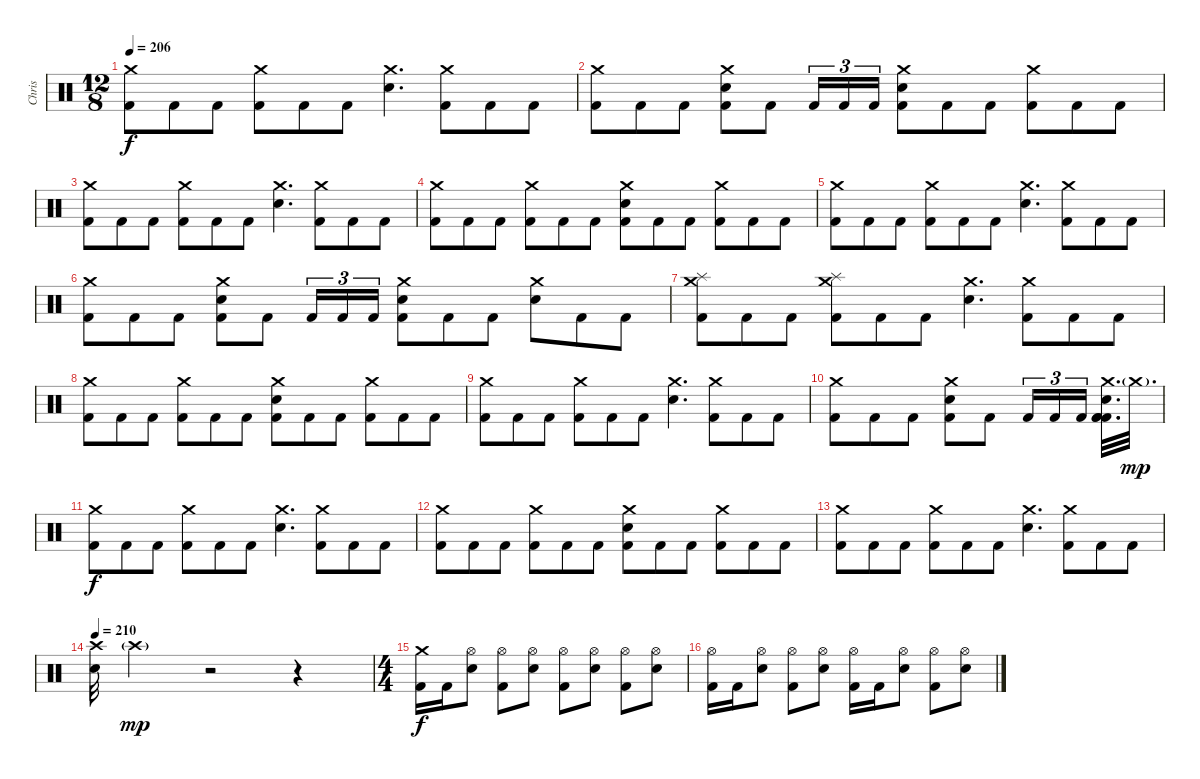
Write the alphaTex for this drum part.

\track ("Chris" "Chris") {instrument percussion}
\staff {score}
\articulation defaults
\ts (12 8)
\tempo 206
\clef neutral
\ks c
("Crash medium (hit)" "Kick (hit) 2").8{dy f} "Kick (hit) 2".8 "Kick (hit) 2".8 ("Crash medium (hit)" "Kick (hit) 2").8 "Kick (hit) 2".8 "Kick (hit) 2".8 ("Crash medium (hit)" "Electric Snare (hit)").4{d} ("Crash medium (hit)" "Kick (hit) 2").8 "Kick (hit) 2".8 "Kick (hit) 2".8 |
("Crash medium (hit)" "Kick (hit) 2").8 "Kick (hit) 2".8 "Kick (hit) 2".8 ("Crash medium (hit)" "Kick (hit) 2" "Electric Snare (hit)").8 "Kick (hit) 2".8 "Kick (hit) 2".16{tu (3 2)} "Kick (hit) 2".16{tu (3 2)} "Kick (hit) 2".16{tu (3 2)} ("Crash medium (hit)" "Kick (hit) 2" "Electric Snare (hit)").8 "Kick (hit) 2".8 "Kick (hit) 2".8 ("Crash medium (hit)" "Kick (hit) 2").8 "Kick (hit) 2".8 "Kick (hit) 2".8 |
("Crash medium (hit)" "Kick (hit) 2").8 "Kick (hit) 2".8 "Kick (hit) 2".8 ("Crash medium (hit)" "Kick (hit) 2").8 "Kick (hit) 2".8 "Kick (hit) 2".8 ("Crash medium (hit)" "Electric Snare (hit)").4{d} ("Crash medium (hit)" "Kick (hit) 2").8 "Kick (hit) 2".8 "Kick (hit) 2".8 |
("Crash medium (hit)" "Kick (hit) 2").8 "Kick (hit) 2".8 "Kick (hit) 2".8 ("Crash medium (hit)" "Kick (hit) 2").8 "Kick (hit) 2".8 "Kick (hit) 2".8 ("Crash medium (hit)" "Kick (hit) 2" "Electric Snare (hit)").8 "Kick (hit) 2".8 "Kick (hit) 2".8 ("Crash medium (hit)" "Kick (hit) 2").8 "Kick (hit) 2".8 "Kick (hit) 2".8 |
("Crash medium (hit)" "Kick (hit) 2").8 "Kick (hit) 2".8 "Kick (hit) 2".8 ("Crash medium (hit)" "Kick (hit) 2").8 "Kick (hit) 2".8 "Kick (hit) 2".8 ("Crash medium (hit)" "Electric Snare (hit)").4{d} ("Crash medium (hit)" "Kick (hit) 2").8 "Kick (hit) 2".8 "Kick (hit) 2".8 |
("Crash medium (hit)" "Kick (hit) 2").8 "Kick (hit) 2".8 "Kick (hit) 2".8 ("Crash medium (hit)" "Kick (hit) 2" "Electric Snare (hit)").8 "Kick (hit) 2".8 "Kick (hit) 2".16{tu (3 2)} "Kick (hit) 2".16{tu (3 2)} "Kick (hit) 2".16{tu (3 2)} ("Crash medium (hit)" "Kick (hit) 2" "Electric Snare (hit)").8 "Kick (hit) 2".8 "Kick (hit) 2".8 ("Crash medium (hit)" "Electric Snare (hit)").8 "Kick (hit) 2".8 "Kick (hit) 2".8 |
("Crash medium (hit)" "Kick (hit) 2" "Splash (hit)").8 "Kick (hit) 2".8 "Kick (hit) 2".8 ("Crash medium (hit)" "Kick (hit) 2" "Splash (hit)").8 "Kick (hit) 2".8 "Kick (hit) 2".8 ("Crash medium (hit)" "Electric Snare (hit)").4{d} ("Crash medium (hit)" "Kick (hit) 2").8 "Kick (hit) 2".8 "Kick (hit) 2".8 |
("Crash medium (hit)" "Kick (hit) 2").8 "Kick (hit) 2".8 "Kick (hit) 2".8 ("Crash medium (hit)" "Kick (hit) 2").8 "Kick (hit) 2".8 "Kick (hit) 2".8 ("Crash medium (hit)" "Kick (hit) 2" "Electric Snare (hit)").8 "Kick (hit) 2".8 "Kick (hit) 2".8 ("Crash medium (hit)" "Kick (hit) 2").8 "Kick (hit) 2".8 "Kick (hit) 2".8 |
("Crash medium (hit)" "Kick (hit) 2").8 "Kick (hit) 2".8 "Kick (hit) 2".8 ("Crash medium (hit)" "Kick (hit) 2").8 "Kick (hit) 2".8 "Kick (hit) 2".8 ("Crash medium (hit)" "Electric Snare (hit)").4{d} ("Crash medium (hit)" "Kick (hit) 2").8 "Kick (hit) 2".8 "Kick (hit) 2".8 |
("Crash medium (hit)" "Kick (hit) 2").8 "Kick (hit) 2".8 "Kick (hit) 2".8 ("Crash medium (hit)" "Kick (hit) 2" "Electric Snare (hit)").8 "Kick (hit) 2".8 "Kick (hit) 2".16{tu (3 2)} "Kick (hit) 2".16{tu (3 2)} "Kick (hit) 2".16{tu (3 2)} ("Crash medium (hit)" "Electric Snare (hit)" "Kick (hit) 2" "Kick (hit) 2" "Kick (hit) 2").32{d} "Crash medium (hit)"{g}.32{d dy mp} |
("Crash medium (hit)" "Kick (hit) 2").8{dy f} "Kick (hit) 2".8 "Kick (hit) 2".8 ("Crash medium (hit)" "Kick (hit) 2").8 "Kick (hit) 2".8 "Kick (hit) 2".8 ("Crash medium (hit)" "Electric Snare (hit)").4{d} ("Crash medium (hit)" "Kick (hit) 2").8 "Kick (hit) 2".8 "Kick (hit) 2".8 |
("Crash medium (hit)" "Kick (hit) 2").8 "Kick (hit) 2".8 "Kick (hit) 2".8 ("Crash medium (hit)" "Kick (hit) 2").8 "Kick (hit) 2".8 "Kick (hit) 2".8 ("Crash medium (hit)" "Kick (hit) 2" "Electric Snare (hit)").8 "Kick (hit) 2".8 "Kick (hit) 2".8 ("Crash medium (hit)" "Kick (hit) 2").8 "Kick (hit) 2".8 "Kick (hit) 2".8 |
("Crash medium (hit)" "Kick (hit) 2").8 "Kick (hit) 2".8 "Kick (hit) 2".8 ("Crash medium (hit)" "Kick (hit) 2").8 "Kick (hit) 2".8 "Kick (hit) 2".8 ("Crash medium (hit)" "Electric Snare (hit)").4{d} ("Crash medium (hit)" "Kick (hit) 2").8 "Kick (hit) 2".8 "Kick (hit) 2".8 |
\tempo 210
("Electric Snare (hit)" "Crash high (hit)").32 "Crash high (hit)"{g}.4{dy mp} r.2 r.4 |
\ts (4 4)
("Crash medium (hit)" "Kick (hit) 2").16{dy f} "Kick (hit) 2".16 ("Hi-Hat (open)" "Snare (hit) 2").8 ("Hi-Hat (open)" "Kick (hit) 2").8 ("Hi-Hat (open)" "Electric Snare (hit)").8 ("Hi-Hat (open)" "Kick (hit) 2").8 ("Hi-Hat (open)" "Electric Snare (hit)").8 ("Hi-Hat (open)" "Kick (hit) 2").8 ("Hi-Hat (open)" "Electric Snare (hit)").8 |
("Hi-Hat (open)" "Kick (hit) 2").16 "Kick (hit) 2".16 ("Hi-Hat (open)" "Snare (hit) 2").8 ("Hi-Hat (open)" "Kick (hit) 2").8 ("Hi-Hat (open)" "Electric Snare (hit)").8 ("Hi-Hat (open)" "Kick (hit) 2").16 "Kick (hit) 2".16 ("Hi-Hat (open)" "Electric Snare (hit)").8 ("Hi-Hat (open)" "Kick (hit) 2").8 ("Hi-Hat (open)" "Electric Snare (hit)").8
